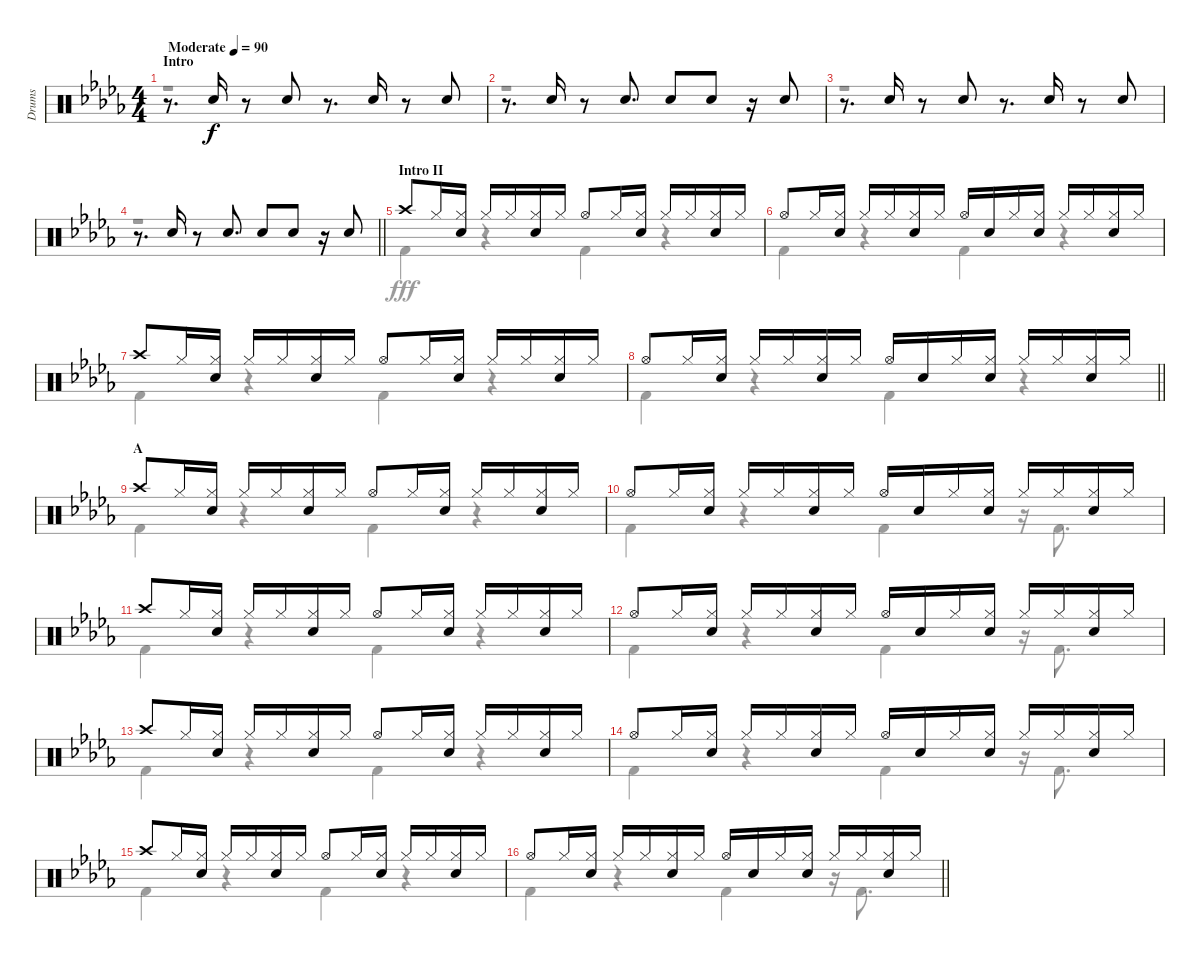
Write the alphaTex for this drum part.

\track ("Drums" "Drums") {instrument percussion}
\staff {score}
\articulation defaults
\voice
\ts (4 4)
\section ("" "Intro")
\tempo (90 "Moderate")
\clef neutral
\ks db
r.8{d dy f} "Snare (hit) 2".16 r.8 "Snare (hit) 2".8 r.8{d} "Snare (hit) 2".16 r.8 "Snare (hit) 2".8 |
r.8{d} "Snare (hit) 2".16 r.8 "Snare (hit) 2".8{d} "Snare (hit) 2".8 "Snare (hit) 2".8 r.16 "Snare (hit) 2".8 |
r.8{d} "Snare (hit) 2".16 r.8 "Snare (hit) 2".8 r.8{d} "Snare (hit) 2".16 r.8 "Snare (hit) 2".8 |
\barLineRight lightlight
r.8{d} "Snare (hit) 2".16 r.8 "Snare (hit) 2".8{d} "Snare (hit) 2".8 "Snare (hit) 2".8 r.16 "Snare (hit) 2".8 |
\section ("" "Intro II")
"Crash high (hit)".8 "Hi-Hat (closed)".16 ("Hi-Hat (closed)" "Snare (hit) 2").16 "Hi-Hat (closed)".16 "Hi-Hat (closed)".16 ("Hi-Hat (closed)" "Snare (hit) 2").16 "Hi-Hat (closed)".16 "Hi-Hat (open)".8 "Hi-Hat (closed)".16 ("Hi-Hat (closed)" "Snare (hit) 2").16 "Hi-Hat (closed)".16 "Hi-Hat (closed)".16 ("Hi-Hat (closed)" "Snare (hit) 2").16 "Hi-Hat (closed)".16 |
"Hi-Hat (open)".8 "Hi-Hat (closed)".16 ("Hi-Hat (closed)" "Snare (hit) 2").16 "Hi-Hat (closed)".16 "Hi-Hat (closed)".16 ("Hi-Hat (closed)" "Snare (hit) 2").16 "Hi-Hat (closed)".16 "Hi-Hat (open)".16 "Snare (hit) 2".16 "Hi-Hat (closed)".16 ("Hi-Hat (closed)" "Snare (hit) 2").16 "Hi-Hat (closed)".16 "Hi-Hat (closed)".16 ("Hi-Hat (closed)" "Snare (hit) 2").16 "Hi-Hat (closed)".16 |
"Crash high (hit)".8 "Hi-Hat (closed)".16 ("Hi-Hat (closed)" "Snare (hit) 2").16 "Hi-Hat (closed)".16 "Hi-Hat (closed)".16 ("Hi-Hat (closed)" "Snare (hit) 2").16 "Hi-Hat (closed)".16 "Hi-Hat (open)".8 "Hi-Hat (closed)".16 ("Hi-Hat (closed)" "Snare (hit) 2").16 "Hi-Hat (closed)".16 "Hi-Hat (closed)".16 ("Hi-Hat (closed)" "Snare (hit) 2").16 "Hi-Hat (closed)".16 |
\barLineRight lightlight "Hi-Hat (open)".8 "Hi-Hat (closed)".16
("Hi-Hat (closed)" "Snare (hit) 2").16 "Hi-Hat (closed)".16 "Hi-Hat (closed)".16 ("Hi-Hat (closed)" "Snare (hit) 2").16 "Hi-Hat (closed)".16 "Hi-Hat (open)".16 "Snare (hit) 2".16 "Hi-Hat (closed)".16 ("Hi-Hat (closed)" "Snare (hit) 2").16 "Hi-Hat (closed)".16 "Hi-Hat (closed)".16 ("Hi-Hat (closed)" "Snare (hit) 2").16 "Hi-Hat (closed)".16 |
\section ("" "A")
"Crash high (hit)".8 "Hi-Hat (closed)".16 ("Hi-Hat (closed)" "Snare (hit) 2").16 "Hi-Hat (closed)".16 "Hi-Hat (closed)".16 ("Hi-Hat (closed)" "Snare (hit) 2").16 "Hi-Hat (closed)".16 "Hi-Hat (open)".8 "Hi-Hat (closed)".16 ("Hi-Hat (closed)" "Snare (hit) 2").16 "Hi-Hat (closed)".16 "Hi-Hat (closed)".16 ("Hi-Hat (closed)" "Snare (hit) 2").16 "Hi-Hat (closed)".16 |
"Hi-Hat (open)".8 "Hi-Hat (closed)".16 ("Hi-Hat (closed)" "Snare (hit) 2").16 "Hi-Hat (closed)".16 "Hi-Hat (closed)".16 ("Hi-Hat (closed)" "Snare (hit) 2").16 "Hi-Hat (closed)".16 "Hi-Hat (open)".16 "Snare (hit) 2".16 "Hi-Hat (closed)".16 ("Hi-Hat (closed)" "Snare (hit) 2").16 "Hi-Hat (closed)".16 "Hi-Hat (closed)".16 ("Hi-Hat (closed)" "Snare (hit) 2").16 "Hi-Hat (closed)".16 |
"Crash high (hit)".8 "Hi-Hat (closed)".16 ("Hi-Hat (closed)" "Snare (hit) 2").16 "Hi-Hat (closed)".16 "Hi-Hat (closed)".16 ("Hi-Hat (closed)" "Snare (hit) 2").16 "Hi-Hat (closed)".16 "Hi-Hat (open)".8 "Hi-Hat (closed)".16 ("Hi-Hat (closed)" "Snare (hit) 2").16 "Hi-Hat (closed)".16 "Hi-Hat (closed)".16 ("Hi-Hat (closed)" "Snare (hit) 2").16 "Hi-Hat (closed)".16 |
"Hi-Hat (open)".8 "Hi-Hat (closed)".16 ("Hi-Hat (closed)" "Snare (hit) 2").16 "Hi-Hat (closed)".16 "Hi-Hat (closed)".16 ("Hi-Hat (closed)" "Snare (hit) 2").16 "Hi-Hat (closed)".16 "Hi-Hat (open)".16 "Snare (hit) 2".16 "Hi-Hat (closed)".16 ("Hi-Hat (closed)" "Snare (hit) 2").16 "Hi-Hat (closed)".16 "Hi-Hat (closed)".16 ("Hi-Hat (closed)" "Snare (hit) 2").16 "Hi-Hat (closed)".16 |
"Crash high (hit)".8 "Hi-Hat (closed)".16 ("Hi-Hat (closed)" "Snare (hit) 2").16 "Hi-Hat (closed)".16 "Hi-Hat (closed)".16 ("Hi-Hat (closed)" "Snare (hit) 2").16 "Hi-Hat (closed)".16 "Hi-Hat (open)".8 "Hi-Hat (closed)".16 ("Hi-Hat (closed)" "Snare (hit) 2").16 "Hi-Hat (closed)".16 "Hi-Hat (closed)".16 ("Hi-Hat (closed)" "Snare (hit) 2").16 "Hi-Hat (closed)".16 |
"Hi-Hat (open)".8 "Hi-Hat (closed)".16 ("Hi-Hat (closed)" "Snare (hit) 2").16 "Hi-Hat (closed)".16 "Hi-Hat (closed)".16 ("Hi-Hat (closed)" "Snare (hit) 2").16 "Hi-Hat (closed)".16 "Hi-Hat (open)".16 "Snare (hit) 2".16 "Hi-Hat (closed)".16 ("Hi-Hat (closed)" "Snare (hit) 2").16 "Hi-Hat (closed)".16 "Hi-Hat (closed)".16 ("Hi-Hat (closed)" "Snare (hit) 2").16 "Hi-Hat (closed)".16 |
"Crash high (hit)".8 "Hi-Hat (closed)".16 ("Hi-Hat (closed)" "Snare (hit) 2").16 "Hi-Hat (closed)".16 "Hi-Hat (closed)".16 ("Hi-Hat (closed)" "Snare (hit) 2").16 "Hi-Hat (closed)".16 "Hi-Hat (open)".8 "Hi-Hat (closed)".16 ("Hi-Hat (closed)" "Snare (hit) 2").16 "Hi-Hat (closed)".16 "Hi-Hat (closed)".16 ("Hi-Hat (closed)" "Snare (hit) 2").16 "Hi-Hat (closed)".16 |
\barLineRight lightlight "Hi-Hat (open)".8 "Hi-Hat (closed)".16
("Hi-Hat (closed)" "Snare (hit) 2").16 "Hi-Hat (closed)".16 "Hi-Hat (closed)".16 ("Hi-Hat (closed)" "Snare (hit) 2").16 "Hi-Hat (closed)".16 "Hi-Hat (open)".16 "Snare (hit) 2".16 "Hi-Hat (closed)".16 ("Hi-Hat (closed)" "Snare (hit) 2").16 "Hi-Hat (closed)".16 "Hi-Hat (closed)".16 ("Hi-Hat (closed)" "Snare (hit) 2").16 "Hi-Hat (closed)".16
\voice
\clef neutral
\ottava regular
\simile none
\ks db
r.1{dy fff} |
r.1 |
r.1 |
\barLineRight lightlight
r.1 |
"Kick (hit) 2".4 r.4 "Kick (hit) 2".4 r.4 |
"Kick (hit) 2".4 r.4 "Kick (hit) 2".4 r.4 |
"Kick (hit) 2".4 r.4 "Kick (hit) 2".4 r.4 |
\barLineRight lightlight "Kick (hit) 2".4
r.4 "Kick (hit) 2".4 r.4 |
"Kick (hit) 2".4 r.4 "Kick (hit) 2".4 r.4 |
"Kick (hit) 2".4 r.4 "Kick (hit) 2".4 r.16 "Kick (hit) 2".8{d} |
"Kick (hit) 2".4 r.4 "Kick (hit) 2".4 r.4 |
"Kick (hit) 2".4 r.4 "Kick (hit) 2".4 r.16 "Kick (hit) 2".8{d} |
"Kick (hit) 2".4 r.4 "Kick (hit) 2".4 r.4 |
"Kick (hit) 2".4 r.4 "Kick (hit) 2".4 r.16 "Kick (hit) 2".8{d} |
"Kick (hit) 2".4 r.4 "Kick (hit) 2".4 r.4 |
\barLineRight lightlight "Kick (hit) 2".4
r.4 "Kick (hit) 2".4 r.16 "Kick (hit) 2".8{d}
